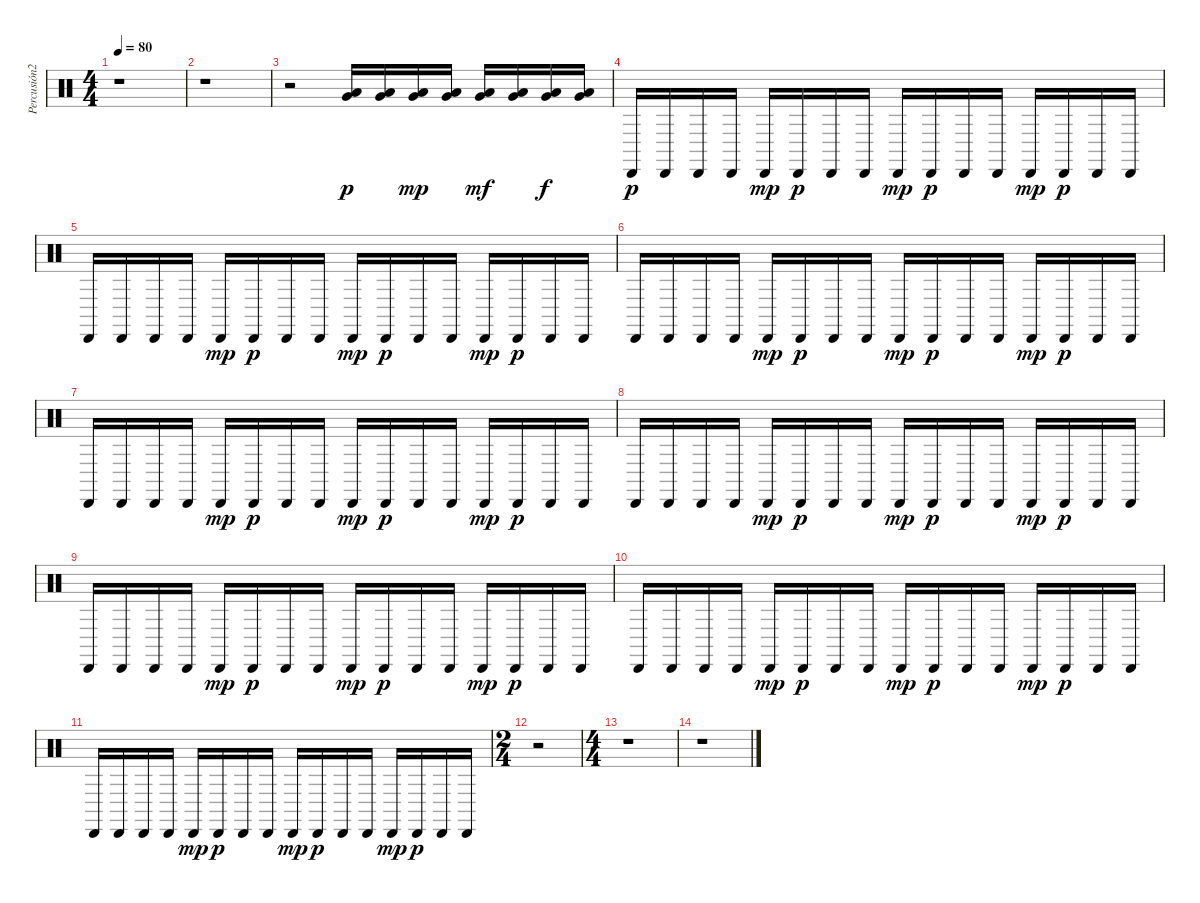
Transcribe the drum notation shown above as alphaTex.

\track ("Percusión2" "Percusión2") {instrument percussion}
\staff {score}
\articulation defaults
\ts (4 4)
\tempo 80
\clef neutral
\ks c
r.1{dy p} |
r.1 |
r.2 ("Very Low Tom (hit)" "Low Floor Tom (hit)").16 ("Very Low Tom (hit)" "Low Floor Tom (hit)").16 ("Very Low Tom (hit)" "Low Floor Tom (hit)").16{dy mp} ("Very Low Tom (hit)" "Low Floor Tom (hit)").16 ("Low Tom (hit)" "Very Low Tom (hit)").16{dy mf} ("Low Tom (hit)" "Very Low Tom (hit)").16 ("Low Tom (hit)" "Very Low Tom (hit)").16{dy f} ("Low Tom (hit)" "Very Low Tom (hit)").16 |
"Cabasa (hit)".16{dy p} "Cabasa (hit)".16 "Cabasa (hit)".16 "Cabasa (hit)".16 "Cabasa (hit)".16{dy mp} "Cabasa (hit)".16{dy p} "Cabasa (hit)".16 "Cabasa (hit)".16 "Cabasa (hit)".16{dy mp} "Cabasa (hit)".16{dy p} "Cabasa (hit)".16 "Cabasa (hit)".16 "Cabasa (hit)".16{dy mp} "Cabasa (hit)".16{dy p} "Cabasa (hit)".16 "Cabasa (hit)".16 |
"Cabasa (hit)".16 "Cabasa (hit)".16 "Cabasa (hit)".16 "Cabasa (hit)".16 "Cabasa (hit)".16{dy mp} "Cabasa (hit)".16{dy p} "Cabasa (hit)".16 "Cabasa (hit)".16 "Cabasa (hit)".16{dy mp} "Cabasa (hit)".16{dy p} "Cabasa (hit)".16 "Cabasa (hit)".16 "Cabasa (hit)".16{dy mp} "Cabasa (hit)".16{dy p} "Cabasa (hit)".16 "Cabasa (hit)".16 |
"Cabasa (hit)".16 "Cabasa (hit)".16 "Cabasa (hit)".16 "Cabasa (hit)".16 "Cabasa (hit)".16{dy mp} "Cabasa (hit)".16{dy p} "Cabasa (hit)".16 "Cabasa (hit)".16 "Cabasa (hit)".16{dy mp} "Cabasa (hit)".16{dy p} "Cabasa (hit)".16 "Cabasa (hit)".16 "Cabasa (hit)".16{dy mp} "Cabasa (hit)".16{dy p} "Cabasa (hit)".16 "Cabasa (hit)".16 |
"Cabasa (hit)".16 "Cabasa (hit)".16 "Cabasa (hit)".16 "Cabasa (hit)".16 "Cabasa (hit)".16{dy mp} "Cabasa (hit)".16{dy p} "Cabasa (hit)".16 "Cabasa (hit)".16 "Cabasa (hit)".16{dy mp} "Cabasa (hit)".16{dy p} "Cabasa (hit)".16 "Cabasa (hit)".16 "Cabasa (hit)".16{dy mp} "Cabasa (hit)".16{dy p} "Cabasa (hit)".16 "Cabasa (hit)".16 |
"Cabasa (hit)".16 "Cabasa (hit)".16 "Cabasa (hit)".16 "Cabasa (hit)".16 "Cabasa (hit)".16{dy mp} "Cabasa (hit)".16{dy p} "Cabasa (hit)".16 "Cabasa (hit)".16 "Cabasa (hit)".16{dy mp} "Cabasa (hit)".16{dy p} "Cabasa (hit)".16 "Cabasa (hit)".16 "Cabasa (hit)".16{dy mp} "Cabasa (hit)".16{dy p} "Cabasa (hit)".16 "Cabasa (hit)".16 |
"Cabasa (hit)".16 "Cabasa (hit)".16 "Cabasa (hit)".16 "Cabasa (hit)".16 "Cabasa (hit)".16{dy mp} "Cabasa (hit)".16{dy p} "Cabasa (hit)".16 "Cabasa (hit)".16 "Cabasa (hit)".16{dy mp} "Cabasa (hit)".16{dy p} "Cabasa (hit)".16 "Cabasa (hit)".16 "Cabasa (hit)".16{dy mp} "Cabasa (hit)".16{dy p} "Cabasa (hit)".16 "Cabasa (hit)".16 |
"Cabasa (hit)".16 "Cabasa (hit)".16 "Cabasa (hit)".16 "Cabasa (hit)".16 "Cabasa (hit)".16{dy mp} "Cabasa (hit)".16{dy p} "Cabasa (hit)".16 "Cabasa (hit)".16 "Cabasa (hit)".16{dy mp} "Cabasa (hit)".16{dy p} "Cabasa (hit)".16 "Cabasa (hit)".16 "Cabasa (hit)".16{dy mp} "Cabasa (hit)".16{dy p} "Cabasa (hit)".16 "Cabasa (hit)".16 |
"Cabasa (hit)".16 "Cabasa (hit)".16 "Cabasa (hit)".16 "Cabasa (hit)".16 "Cabasa (hit)".16{dy mp} "Cabasa (hit)".16{dy p} "Cabasa (hit)".16 "Cabasa (hit)".16 "Cabasa (hit)".16{dy mp} "Cabasa (hit)".16{dy p} "Cabasa (hit)".16 "Cabasa (hit)".16 "Cabasa (hit)".16{dy mp} "Cabasa (hit)".16{dy p} "Cabasa (hit)".16 "Cabasa (hit)".16 |
\ts (2 4)
r.2 |
\ts (4 4)
r.1 |
r.1
